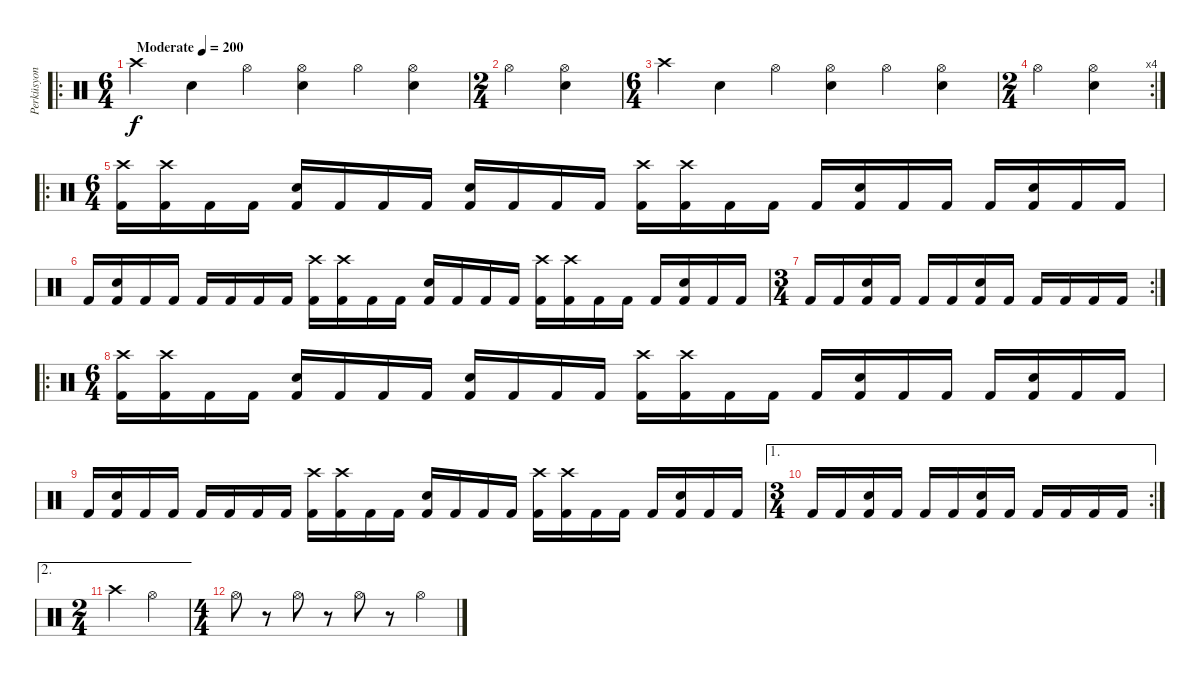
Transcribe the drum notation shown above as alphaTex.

\track ("Perküsyon" "Perküsyon") {instrument percussion}
\staff {score}
\articulation defaults
\ro
\ts (6 4)
\tempo (200 "Moderate")
\clef neutral
\ks c "Crash high (hit)".4{dy f} "Electric Snare (hit)".4 "Hi-Hat (open)".4
("Hi-Hat (open)" "Electric Snare (hit)").4 "Hi-Hat (open)".4 ("Hi-Hat (open)" "Electric Snare (hit)").4 |
\ts (2 4)
"Hi-Hat (open)".4 ("Hi-Hat (open)" "Electric Snare (hit)").4 |
\ts (6 4)
"Crash high (hit)".4 "Electric Snare (hit)".4 "Hi-Hat (open)".4 ("Hi-Hat (open)" "Electric Snare (hit)").4 "Hi-Hat (open)".4 ("Hi-Hat (open)" "Electric Snare (hit)").4 |
\rc 4
\ts (2 4)
"Hi-Hat (open)".4 ("Hi-Hat (open)" "Electric Snare (hit)").4 |
\ro
\ts (6 4)
("Crash high (hit)" "Kick (hit) 2").16 ("Crash high (hit)" "Kick (hit) 2").16 "Kick (hit) 2".16 "Kick (hit) 2".16 ("Electric Snare (hit)" "Kick (hit) 2").16 "Kick (hit) 2".16 "Kick (hit) 2".16 "Kick (hit) 2".16 ("Electric Snare (hit)" "Kick (hit) 2").16 "Kick (hit) 2".16 "Kick (hit) 2".16 "Kick (hit) 2".16 ("Crash high (hit)" "Kick (hit) 2").16 ("Crash high (hit)" "Kick (hit) 2").16 "Kick (hit) 2".16 "Kick (hit) 2".16 "Kick (hit) 2".16 ("Electric Snare (hit)" "Kick (hit) 2").16 "Kick (hit) 2".16 "Kick (hit) 2".16 "Kick (hit) 2".16 ("Electric Snare (hit)" "Kick (hit) 2").16 "Kick (hit) 2".16 "Kick (hit) 2".16 |
"Kick (hit) 2".16 ("Electric Snare (hit)" "Kick (hit) 2").16 "Kick (hit) 2".16 "Kick (hit) 2".16 "Kick (hit) 2".16 "Kick (hit) 2".16 "Kick (hit) 2".16 "Kick (hit) 2".16 ("Crash high (hit)" "Kick (hit) 2").16 ("Crash high (hit)" "Kick (hit) 2").16 "Kick (hit) 2".16 "Kick (hit) 2".16 ("Electric Snare (hit)" "Kick (hit) 2").16 "Kick (hit) 2".16 "Kick (hit) 2".16 "Kick (hit) 2".16 ("Crash high (hit)" "Kick (hit) 2").16 ("Crash high (hit)" "Kick (hit) 2").16 "Kick (hit) 2".16 "Kick (hit) 2".16 "Kick (hit) 2".16 ("Electric Snare (hit)" "Kick (hit) 2").16 "Kick (hit) 2".16 "Kick (hit) 2".16 |
\rc 2
\ts (3 4)
"Kick (hit) 2".16 "Kick (hit) 2".16 ("Electric Snare (hit)" "Kick (hit) 2").16 "Kick (hit) 2".16 "Kick (hit) 2".16 "Kick (hit) 2".16 ("Electric Snare (hit)" "Kick (hit) 2").16 "Kick (hit) 2".16 "Kick (hit) 2".16 "Kick (hit) 2".16 "Kick (hit) 2".16 "Kick (hit) 2".16 |
\ro
\ts (6 4)
("Crash high (hit)" "Kick (hit) 2").16 ("Crash high (hit)" "Kick (hit) 2").16 "Kick (hit) 2".16 "Kick (hit) 2".16 ("Electric Snare (hit)" "Kick (hit) 2").16 "Kick (hit) 2".16 "Kick (hit) 2".16 "Kick (hit) 2".16 ("Electric Snare (hit)" "Kick (hit) 2").16 "Kick (hit) 2".16 "Kick (hit) 2".16 "Kick (hit) 2".16 ("Crash high (hit)" "Kick (hit) 2").16 ("Crash high (hit)" "Kick (hit) 2").16 "Kick (hit) 2".16 "Kick (hit) 2".16 "Kick (hit) 2".16 ("Electric Snare (hit)" "Kick (hit) 2").16 "Kick (hit) 2".16 "Kick (hit) 2".16 "Kick (hit) 2".16 ("Electric Snare (hit)" "Kick (hit) 2").16 "Kick (hit) 2".16 "Kick (hit) 2".16 |
"Kick (hit) 2".16 ("Electric Snare (hit)" "Kick (hit) 2").16 "Kick (hit) 2".16 "Kick (hit) 2".16 "Kick (hit) 2".16 "Kick (hit) 2".16 "Kick (hit) 2".16 "Kick (hit) 2".16 ("Crash high (hit)" "Kick (hit) 2").16 ("Crash high (hit)" "Kick (hit) 2").16 "Kick (hit) 2".16 "Kick (hit) 2".16 ("Electric Snare (hit)" "Kick (hit) 2").16 "Kick (hit) 2".16 "Kick (hit) 2".16 "Kick (hit) 2".16 ("Crash high (hit)" "Kick (hit) 2").16 ("Crash high (hit)" "Kick (hit) 2").16 "Kick (hit) 2".16 "Kick (hit) 2".16 "Kick (hit) 2".16 ("Electric Snare (hit)" "Kick (hit) 2").16 "Kick (hit) 2".16 "Kick (hit) 2".16 |
\ae 1
\rc 2
\ts (3 4)
"Kick (hit) 2".16 "Kick (hit) 2".16 ("Electric Snare (hit)" "Kick (hit) 2").16 "Kick (hit) 2".16 "Kick (hit) 2".16 "Kick (hit) 2".16 ("Electric Snare (hit)" "Kick (hit) 2").16 "Kick (hit) 2".16 "Kick (hit) 2".16 "Kick (hit) 2".16 "Kick (hit) 2".16 "Kick (hit) 2".16 |
\ae 2
\ts (2 4)
"Crash high (hit)".4 "Hi-Hat (open)".4 |
\ts (4 4)
"Hi-Hat (open)".8 r.8 "Hi-Hat (open)".8 r.8 "Hi-Hat (open)".8 r.8 "Hi-Hat (open)".4
